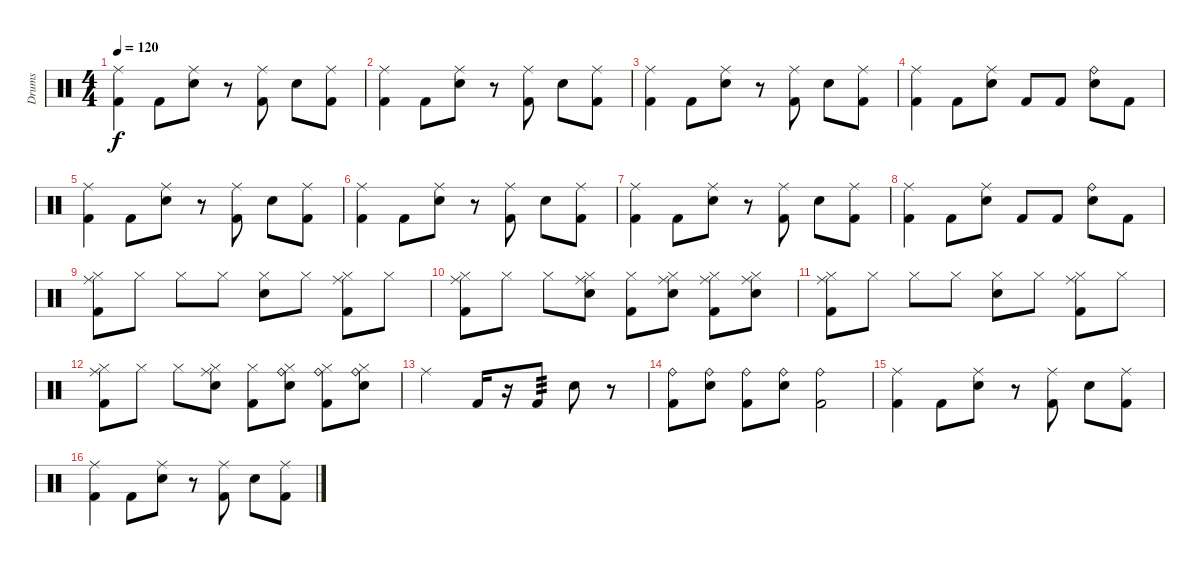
\track ("Drums" "Drums") {instrument percussion}
\staff {score}
\articulation defaults
\ts (4 4)
\tempo 120
\clef neutral
\ks c
("Ride (middle)" "Kick (hit) 2").4{dy f} "Kick (hit) 2".8 ("Ride (middle)" "Electric Snare (hit)").8 r.8 ("Ride (middle)" "Kick (hit) 2").8 "Electric Snare (hit)".8 ("Ride (middle)" "Kick (hit) 2").8 |
("Ride (middle)" "Kick (hit) 2").4 "Kick (hit) 2".8 ("Ride (middle)" "Electric Snare (hit)").8 r.8 ("Ride (middle)" "Kick (hit) 2").8 "Electric Snare (hit)".8 ("Ride (middle)" "Kick (hit) 2").8 |
("Ride (middle)" "Kick (hit) 2").4 "Kick (hit) 2".8 ("Ride (middle)" "Electric Snare (hit)").8 r.8 ("Ride (middle)" "Kick (hit) 2").8 "Electric Snare (hit)".8 ("Ride (middle)" "Kick (hit) 2").8 |
("Ride (middle)" "Kick (hit) 2").4 "Kick (hit) 2".8 ("Ride (middle)" "Electric Snare (hit)").8 "Kick (hit) 2".8 "Kick (hit) 2".8 ("Ride (bell)" "Electric Snare (hit)").8 "Kick (hit) 2".8 |
("Ride (middle)" "Kick (hit) 2").4 "Kick (hit) 2".8 ("Ride (middle)" "Electric Snare (hit)").8 r.8 ("Ride (middle)" "Kick (hit) 2").8 "Electric Snare (hit)".8 ("Ride (middle)" "Kick (hit) 2").8 |
("Ride (middle)" "Kick (hit) 2").4 "Kick (hit) 2".8 ("Ride (middle)" "Electric Snare (hit)").8 r.8 ("Ride (middle)" "Kick (hit) 2").8 "Electric Snare (hit)".8 ("Ride (middle)" "Kick (hit) 2").8 |
("Ride (middle)" "Kick (hit) 2").4 "Kick (hit) 2".8 ("Ride (middle)" "Electric Snare (hit)").8 r.8 ("Ride (middle)" "Kick (hit) 2").8 "Electric Snare (hit)".8 ("Ride (middle)" "Kick (hit) 2").8 |
("Ride (middle)" "Kick (hit) 2").4 "Kick (hit) 2".8 ("Ride (middle)" "Electric Snare (hit)").8 "Kick (hit) 2".8 "Kick (hit) 2".8 ("Ride (bell)" "Electric Snare (hit)").8 "Kick (hit) 2".8 |
("Ride (middle)" "Hi-Hat (closed)" "Kick (hit) 2").8 "Hi-Hat (closed)".8 "Hi-Hat (closed)".8 "Hi-Hat (closed)".8 ("Hi-Hat (closed)" "Electric Snare (hit)").8 "Hi-Hat (closed)".8 ("Ride (middle)" "Hi-Hat (closed)" "Kick (hit) 2").8 "Hi-Hat (closed)".8 |
("Ride (middle)" "Hi-Hat (closed)" "Kick (hit) 2").8 "Hi-Hat (closed)".8 "Hi-Hat (closed)".8 ("Ride (middle)" "Hi-Hat (closed)" "Electric Snare (hit)").8 ("Hi-Hat (closed)" "Kick (hit) 2").8 ("Ride (middle)" "Hi-Hat (closed)" "Electric Snare (hit)").8 ("Ride (middle)" "Hi-Hat (closed)" "Kick (hit) 2").8 ("Ride (middle)" "Hi-Hat (closed)" "Electric Snare (hit)").8 |
("Ride (middle)" "Hi-Hat (closed)" "Kick (hit) 2").8 "Hi-Hat (closed)".8 "Hi-Hat (closed)".8 "Hi-Hat (closed)".8 ("Hi-Hat (closed)" "Electric Snare (hit)").8 "Hi-Hat (closed)".8 ("Ride (middle)" "Hi-Hat (closed)" "Kick (hit) 2").8 "Hi-Hat (closed)".8 |
("Ride (middle)" "Hi-Hat (closed)" "Kick (hit) 2").8 "Hi-Hat (closed)".8 "Hi-Hat (closed)".8 ("Ride (middle)" "Hi-Hat (closed)" "Electric Snare (hit)").8 ("Hi-Hat (closed)" "Kick (hit) 2").8 ("Ride (bell)" "Hi-Hat (closed)" "Electric Snare (hit)").8 ("Ride (bell)" "Hi-Hat (closed)" "Kick (hit) 2").8 ("Ride (bell)" "Hi-Hat (closed)" "Electric Snare (hit)").8 |
"Ride (middle)".2 "Kick (hit) 2".16 r.16 "Kick (hit) 2".8{tp 3} "Electric Snare (hit)".8 r.8 |
("Ride (bell)" "Kick (hit) 2").8 ("Ride (bell)" "Electric Snare (hit)").8 ("Ride (bell)" "Kick (hit) 2").8 ("Ride (bell)" "Electric Snare (hit)").8 ("Ride (bell)" "Kick (hit) 2").2 |
("Ride (middle)" "Kick (hit) 2").4 "Kick (hit) 2".8 ("Ride (middle)" "Electric Snare (hit)").8 r.8 ("Ride (middle)" "Kick (hit) 2").8 "Electric Snare (hit)".8 ("Ride (middle)" "Kick (hit) 2").8 |
("Ride (middle)" "Kick (hit) 2").4 "Kick (hit) 2".8 ("Ride (middle)" "Electric Snare (hit)").8 r.8 ("Ride (middle)" "Kick (hit) 2").8 "Electric Snare (hit)".8 ("Ride (middle)" "Kick (hit) 2").8
